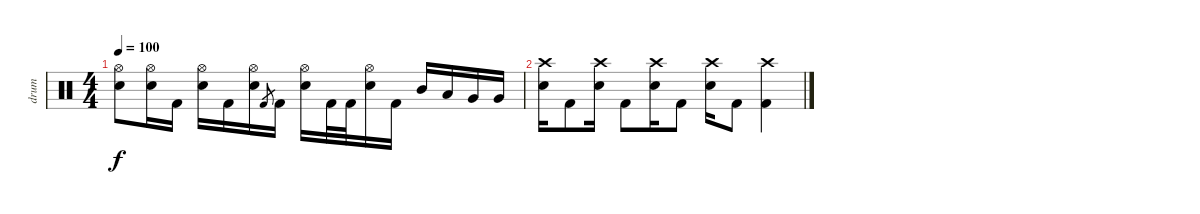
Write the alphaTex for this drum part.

\track ("drum" "drum") {instrument percussion}
\staff {score}
\articulation defaults
\ts (4 4)
\tempo 100
\clef neutral
\ks c
("Hi-Hat (open)" "Electric Snare (hit)").8{dy f} ("Hi-Hat (open)" "Electric Snare (hit)").16 "Kick (hit) 2".16 ("Hi-Hat (open)" "Electric Snare (hit)").16 "Kick (hit) 2".16 ("Hi-Hat (open)" "Electric Snare (hit)").16 "Kick (hit) 2".8{gr} "Kick (hit) 2".16 ("Hi-Hat (open)" "Electric Snare (hit)").16 "Kick (hit) 2".32 "Kick (hit) 2".32 ("Hi-Hat (open)" "Electric Snare (hit)").16 "Kick (hit) 2".16 "Mid Tom (hit)".16 "Low Tom (hit)".16 "Very Low Tom (hit)".16 "Very Low Tom (hit)".16 |
("Crash high (hit)" "Electric Snare (hit)").16 "Kick (hit) 2".8 ("Crash high (hit)" "Electric Snare (hit)").16 "Kick (hit) 2".8 ("Crash high (hit)" "Electric Snare (hit)").16 "Kick (hit) 2".8 ("Crash high (hit)" "Electric Snare (hit)").16 "Kick (hit) 2".8 ("Crash high (hit)" "Kick (hit) 2").4
